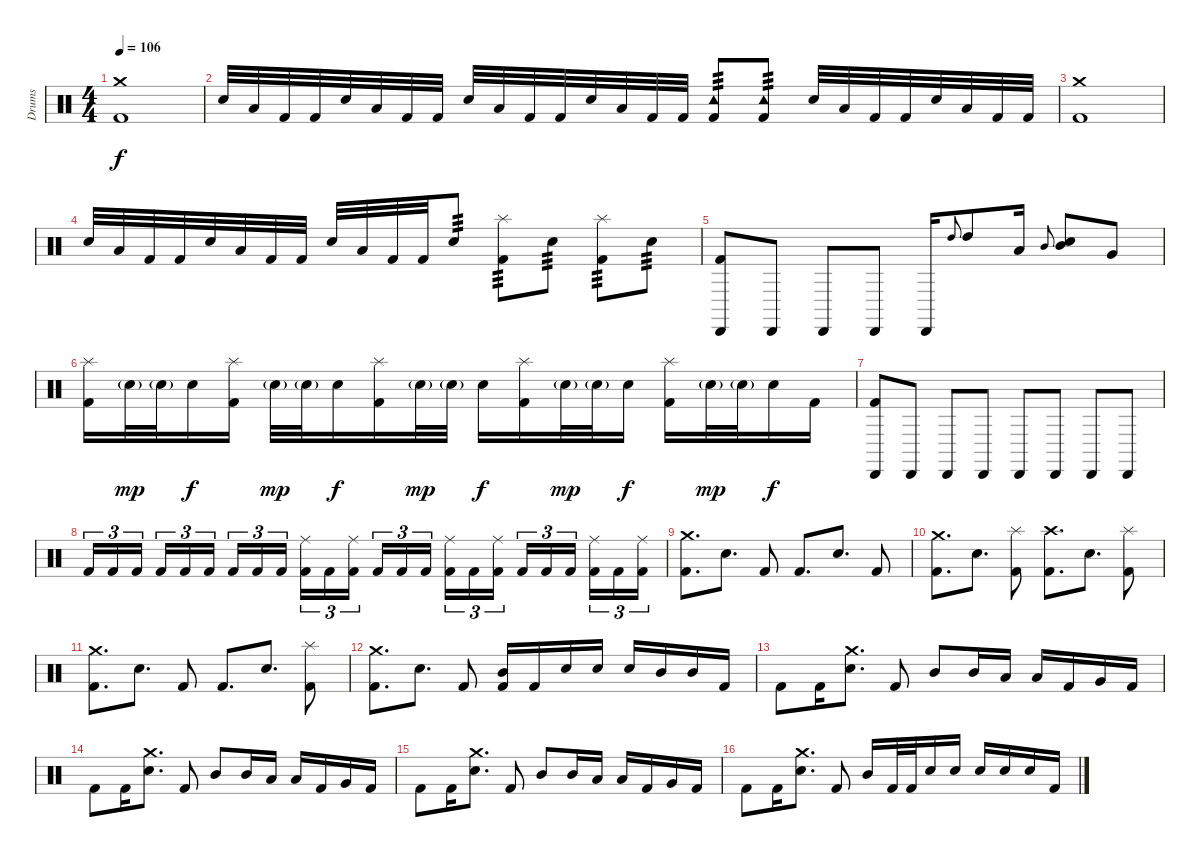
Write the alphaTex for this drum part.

\track ("Drums" "Drums") {instrument percussion}
\staff {score}
\articulation defaults
\ts (4 4)
\tempo 106
\clef neutral
\ks c
("Crash medium (hit)" "Kick (hit) 2").1{dy f} |
"Snare (hit) 2".32 "Low Tom (hit)".32 "Kick (hit) 2".32 "Kick (hit) 2".32 "Snare (hit) 2".32 "Low Tom (hit)".32 "Kick (hit) 2".32 "Kick (hit) 2".32 "Snare (hit) 2".32 "Low Tom (hit)".32 "Kick (hit) 2".32 "Kick (hit) 2".32 "Snare (hit) 2".32 "Low Tom (hit)".32 "Kick (hit) 2".32 "Kick (hit) 2".32 ("Tambourine (hit)" "Kick (hit) 2").8{tp 3} ("Tambourine (hit)" "Kick (hit) 2").8{tp 3} "Snare (hit) 2".32 "Low Tom (hit)".32 "Kick (hit) 2".32 "Kick (hit) 2".32 "Snare (hit) 2".32 "Low Tom (hit)".32 "Kick (hit) 2".32 "Kick (hit) 2".32 |
("Crash medium (hit)" "Kick (hit) 2").1 |
"Snare (hit) 2".32 "Low Tom (hit)".32 "Kick (hit) 2".32 "Kick (hit) 2".32 "Snare (hit) 2".32 "Low Tom (hit)".32 "Kick (hit) 2".32 "Kick (hit) 2".32 "Snare (hit) 2".32 "Low Tom (hit)".32 "Kick (hit) 2".32 "Kick (hit) 2".32 "Snare (hit) 2".8{tp 3} ("Splash (hit)" "Kick (hit) 2").8{tp 3} "Snare (hit) 2".8{tp 3} ("Splash (hit)" "Kick (hit) 2").8{tp 3} "Snare (hit) 2".8{tp 3} |
("Cabasa (hit)" "Kick (hit) 2").8 "Cabasa (hit)".8 "Cabasa (hit)".8 "Cabasa (hit)".8 "Cabasa (hit)".16 "High Tom (hit)".8{gr onbeat} "High Tom (hit)".8 "Low Tom (hit)".16 "Mid Tom (hit)".8{gr onbeat} ("Mid Tom (hit)" "Snare (hit) 2").8 "Very Low Tom (hit)".8 |
("Splash (hit)" "Kick (hit) 2").16 "Snare (hit) 2"{g}.32{dy mp} "Snare (hit) 2"{g}.32 "Snare (hit) 2".16{dy f} ("Splash (hit)" "Kick (hit) 2").16 "Snare (hit) 2"{g}.32{dy mp} "Snare (hit) 2"{g}.32 "Snare (hit) 2".16{dy f} ("Splash (hit)" "Kick (hit) 2").16 "Snare (hit) 2"{g}.32{dy mp} "Snare (hit) 2"{g}.32 "Snare (hit) 2".16{dy f} ("Splash (hit)" "Kick (hit) 2").16 "Snare (hit) 2"{g}.32{dy mp} "Snare (hit) 2"{g}.32 "Snare (hit) 2".16{dy f} ("Splash (hit)" "Kick (hit) 2").16 "Snare (hit) 2"{g}.32{dy mp} "Snare (hit) 2"{g}.32 "Snare (hit) 2".16{dy f} "Kick (hit) 2".16 |
("Cabasa (hit)" "Kick (hit) 2").8 "Cabasa (hit)".8 "Cabasa (hit)".8 "Cabasa (hit)".8 "Cabasa (hit)".8 "Cabasa (hit)".8 "Cabasa (hit)".8 "Cabasa (hit)".8 |
"Kick (hit) 2".16{tu (3 2)} "Kick (hit) 2".16{tu (3 2)} "Kick (hit) 2".16{tu (3 2) beam splitsecondary} "Kick (hit) 2".16{tu (3 2)} "Kick (hit) 2".16{tu (3 2)} "Kick (hit) 2".16{tu (3 2)} "Kick (hit) 2".16{tu (3 2)} "Kick (hit) 2".16{tu (3 2)} "Kick (hit) 2".16{tu (3 2) beam splitsecondary} ("Ride (middle)" "Kick (hit) 2").16{tu (3 2)} "Kick (hit) 2".16{tu (3 2)} ("Ride (middle)" "Kick (hit) 2").16{tu (3 2)} "Kick (hit) 2".16{tu (3 2)} "Kick (hit) 2".16{tu (3 2)} "Kick (hit) 2".16{tu (3 2) beam splitsecondary} ("Ride (middle)" "Kick (hit) 2").16{tu (3 2)} "Kick (hit) 2".16{tu (3 2)} ("Ride (middle)" "Kick (hit) 2").16{tu (3 2)} "Kick (hit) 2".16{tu (3 2)} "Kick (hit) 2".16{tu (3 2)} "Kick (hit) 2".16{tu (3 2) beam splitsecondary} ("Ride (middle)" "Kick (hit) 2").16{tu (3 2)} "Kick (hit) 2".16{tu (3 2)} ("Ride (middle)" "Kick (hit) 2").16{tu (3 2)} |
("Crash medium (hit)" "Kick (hit) 2").8{d} "Snare (hit) 2".8{d} "Kick (hit) 2".8 "Kick (hit) 2".8{d} "Snare (hit) 2".8{d} "Kick (hit) 2".8 |
("Crash medium (hit)" "Kick (hit) 2").8{d} "Snare (hit) 2".8{d} ("Splash (hit)" "Kick (hit) 2").8 ("Crash high (hit)" "Kick (hit) 2").8{d} "Snare (hit) 2".8{d} ("Splash (hit)" "Kick (hit) 2").8 |
("Crash medium (hit)" "Kick (hit) 2").8{d} "Snare (hit) 2".8{d} "Kick (hit) 2".8 "Kick (hit) 2".8{d} "Snare (hit) 2".8{d} ("Splash (hit)" "Kick (hit) 2").8 |
("Crash medium (hit)" "Kick (hit) 2").8{d} "Snare (hit) 2".8{d} "Kick (hit) 2".8 ("Mid Tom (hit)" "Kick (hit) 2").16 "Kick (hit) 2".16 "Snare (hit) 2".16 "Snare (hit) 2".16 "Snare (hit) 2".16 "Mid Tom (hit)".16 "Mid Tom (hit)".16 "Kick (hit) 2".16 |
"Kick (hit) 2".8 "Kick (hit) 2".16 ("Crash medium (hit)" "Snare (hit) 2").8{d} "Kick (hit) 2".8 "Mid Tom (hit)".8 "Mid Tom (hit)".16 "Low Tom (hit)".16 "Low Tom (hit)".16 "Kick (hit) 2".16 "Very Low Tom (hit)".16 "Kick (hit) 2".16 |
"Kick (hit) 2".8 "Kick (hit) 2".16 ("Crash medium (hit)" "Snare (hit) 2").8{d} "Kick (hit) 2".8 "Mid Tom (hit)".8 "Mid Tom (hit)".16 "Low Tom (hit)".16 "Low Tom (hit)".16 "Kick (hit) 2".16 "Very Low Tom (hit)".16 "Kick (hit) 2".16 |
"Kick (hit) 2".8 "Kick (hit) 2".16 ("Crash medium (hit)" "Snare (hit) 2").8{d} "Kick (hit) 2".8 "Mid Tom (hit)".8 "Mid Tom (hit)".16 "Low Tom (hit)".16 "Low Tom (hit)".16 "Kick (hit) 2".16 "Very Low Tom (hit)".16 "Kick (hit) 2".16 |
"Kick (hit) 2".8 "Kick (hit) 2".16 ("Crash medium (hit)" "Snare (hit) 2").8{d} "Kick (hit) 2".8 "Mid Tom (hit)".16 "Kick (hit) 2".32 "Kick (hit) 2".32 "Snare (hit) 2".16 "Snare (hit) 2".16 "Snare (hit) 2".16 "Snare (hit) 2".16 "Snare (hit) 2".16 "Kick (hit) 2".16
